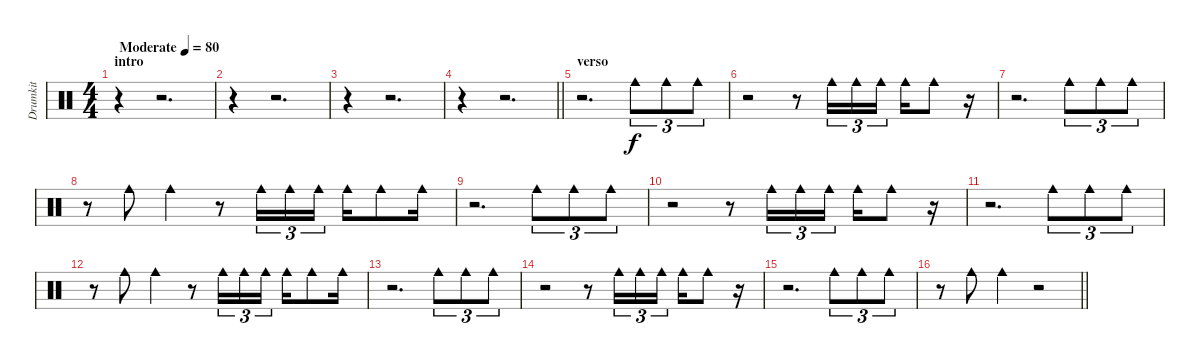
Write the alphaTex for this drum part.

\track ("Drumkit" "Drumkit") {instrument percussion}
\staff {score}
\articulation defaults
\ts (4 4)
\section ("" "intro")
\tempo (80 "Moderate")
\clef neutral
\ks c
r.4{dy f} r.2{d} |
r.4 r.2{d} |
r.4 r.2{d} |
\barLineRight lightlight
r.4 r.2{d} |
\section ("" "verso")
r.2{d} "Cowbell medium (hit)".8{tu (3 2)} "Cowbell medium (hit)".8{tu (3 2)} "Cowbell medium (hit)".8{tu (3 2)} |
r.2 r.8 "Cowbell medium (hit)".16{tu (3 2)} "Cowbell medium (hit)".16{tu (3 2)} "Cowbell medium (hit)".16{tu (3 2)} "Cowbell medium (hit)".16 "Cowbell medium (hit)".8 r.16 |
r.2{d} "Cowbell medium (hit)".8{tu (3 2)} "Cowbell medium (hit)".8{tu (3 2)} "Cowbell medium (hit)".8{tu (3 2)} |
r.8 "Cowbell medium (hit)".8 "Cowbell medium (hit)".4 r.8 "Cowbell medium (hit)".16{tu (3 2)} "Cowbell medium (hit)".16{tu (3 2)} "Cowbell medium (hit)".16{tu (3 2)} "Cowbell medium (hit)".16 "Cowbell medium (hit)".8 "Cowbell medium (hit)".16 |
r.2{d} "Cowbell medium (hit)".8{tu (3 2)} "Cowbell medium (hit)".8{tu (3 2)} "Cowbell medium (hit)".8{tu (3 2)} |
r.2 r.8 "Cowbell medium (hit)".16{tu (3 2)} "Cowbell medium (hit)".16{tu (3 2)} "Cowbell medium (hit)".16{tu (3 2)} "Cowbell medium (hit)".16 "Cowbell medium (hit)".8 r.16 |
r.2{d} "Cowbell medium (hit)".8{tu (3 2)} "Cowbell medium (hit)".8{tu (3 2)} "Cowbell medium (hit)".8{tu (3 2)} |
r.8 "Cowbell medium (hit)".8 "Cowbell medium (hit)".4 r.8 "Cowbell medium (hit)".16{tu (3 2)} "Cowbell medium (hit)".16{tu (3 2)} "Cowbell medium (hit)".16{tu (3 2)} "Cowbell medium (hit)".16 "Cowbell medium (hit)".8 "Cowbell medium (hit)".16 |
r.2{d} "Cowbell medium (hit)".8{tu (3 2)} "Cowbell medium (hit)".8{tu (3 2)} "Cowbell medium (hit)".8{tu (3 2)} |
r.2 r.8 "Cowbell medium (hit)".16{tu (3 2)} "Cowbell medium (hit)".16{tu (3 2)} "Cowbell medium (hit)".16{tu (3 2)} "Cowbell medium (hit)".16 "Cowbell medium (hit)".8 r.16 |
r.2{d} "Cowbell medium (hit)".8{tu (3 2)} "Cowbell medium (hit)".8{tu (3 2)} "Cowbell medium (hit)".8{tu (3 2)} |
\barLineRight lightlight
r.8 "Cowbell medium (hit)".8 "Cowbell medium (hit)".4 r.2
